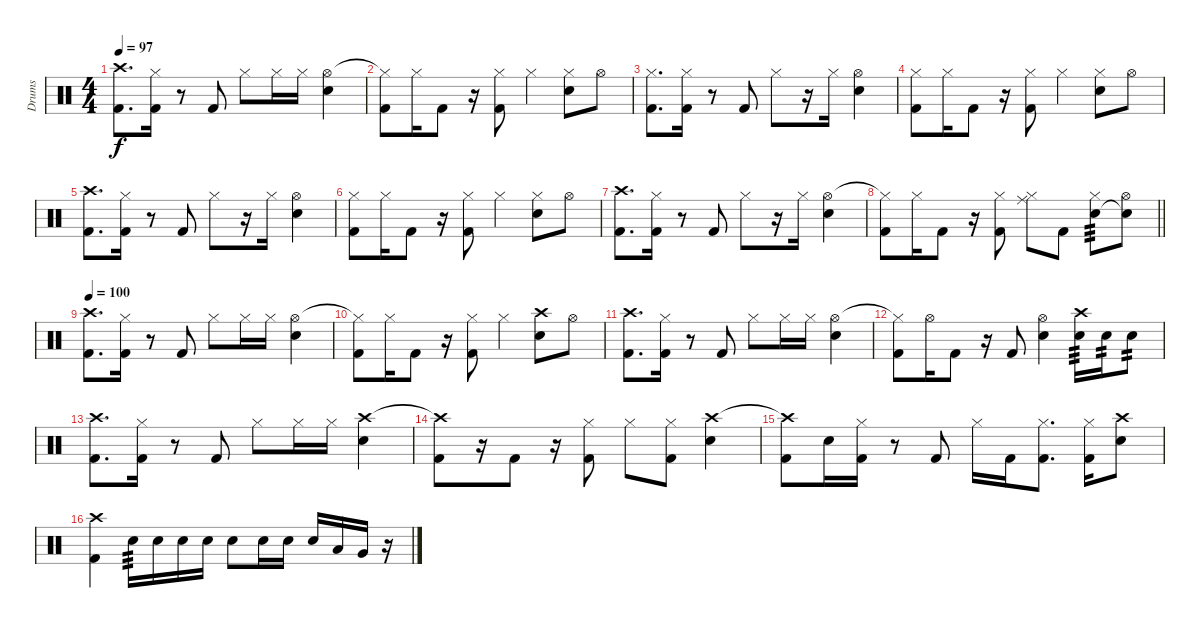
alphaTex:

\track ("Drums" "Drums") {instrument percussion}
\staff {score}
\articulation defaults
\ts (4 4)
\tempo 97
\clef neutral
\ks c
("Crash high (hit)" "Kick (hit) 2").8{d dy f} ("Hi-Hat (closed)" "Kick (hit) 2").16 r.8 "Kick (hit) 2".8 "Hi-Hat (closed)".8 "Hi-Hat (closed)".16 "Hi-Hat (closed)".16 ("Hi-Hat (open)" "Electric Snare (hit)").4 |
("Hi-Hat (closed)"{t} "Kick (hit) 2").8 "Hi-Hat (closed)".16 "Kick (hit) 2".8 r.16 ("Hi-Hat (closed)" "Kick (hit) 2").8 "Hi-Hat (closed)".4 ("Hi-Hat (closed)" "Electric Snare (hit)").8 "Hi-Hat (open)".8 |
("Hi-Hat (closed)" "Kick (hit) 2").8{d} ("Hi-Hat (closed)" "Kick (hit) 2").16 r.8 "Kick (hit) 2".8 "Hi-Hat (closed)".8 r.16 "Hi-Hat (closed)".16 ("Hi-Hat (open)" "Electric Snare (hit)").4 |
("Hi-Hat (closed)" "Kick (hit) 2").8 "Hi-Hat (closed)".16 "Kick (hit) 2".8 r.16 ("Hi-Hat (closed)" "Kick (hit) 2").8 "Hi-Hat (closed)".4 ("Hi-Hat (closed)" "Electric Snare (hit)").8 "Hi-Hat (open)".8 |
("Crash high (hit)" "Kick (hit) 2").8{d} ("Hi-Hat (closed)" "Kick (hit) 2").16 r.8 "Kick (hit) 2".8 "Hi-Hat (closed)".8 r.16 "Hi-Hat (closed)".16 ("Hi-Hat (open)" "Electric Snare (hit)").4 |
("Hi-Hat (closed)" "Kick (hit) 2").8 "Hi-Hat (closed)".16 "Kick (hit) 2".8 r.16 ("Hi-Hat (closed)" "Kick (hit) 2").8 "Hi-Hat (closed)".4 ("Hi-Hat (closed)" "Electric Snare (hit)").8 "Hi-Hat (open)".8 |
("Crash high (hit)" "Kick (hit) 2").8{d} ("Hi-Hat (closed)" "Kick (hit) 2").16 r.8 "Kick (hit) 2".8 "Hi-Hat (closed)".8 r.16 "Hi-Hat (closed)".16 ("Hi-Hat (open)" "Electric Snare (hit)").4 |
\barLineRight lightlight
("Hi-Hat (closed)"{t} "Kick (hit) 2").8 "Hi-Hat (closed)".16 "Kick (hit) 2".8 r.16 ("Hi-Hat (closed)" "Kick (hit) 2").8 ("Ride (middle)" "Hi-Hat (closed)").8 "Kick (hit) 2".8 ("Hi-Hat (closed)" "Electric Snare (hit)").8{tp 3} ("Hi-Hat (open)" "Snare (hit)"{t}).8 |
\tempo 100
("Crash high (hit)" "Kick (hit) 2").8{d} ("Hi-Hat (closed)" "Kick (hit) 2").16 r.8 "Kick (hit) 2".8 "Hi-Hat (closed)".8 "Hi-Hat (closed)".16 "Hi-Hat (closed)".16 ("Hi-Hat (open)" "Electric Snare (hit)").4 |
("Hi-Hat (closed)"{t} "Kick (hit) 2").8 "Hi-Hat (closed)".16 "Kick (hit) 2".8 r.16 ("Hi-Hat (closed)" "Kick (hit) 2").8 "Hi-Hat (closed)".4 ("Crash high (hit)" "Electric Snare (hit)").8 "Hi-Hat (open)".8 |
("Crash high (hit)" "Kick (hit) 2").8{d} ("Hi-Hat (closed)" "Kick (hit) 2").16 r.8 "Kick (hit) 2".8 "Hi-Hat (closed)".8 "Hi-Hat (closed)".16 "Hi-Hat (closed)".16 ("Hi-Hat (open)" "Electric Snare (hit)").4 |
("Hi-Hat (closed)"{t} "Kick (hit) 2").8 "Hi-Hat (open)".16 "Kick (hit) 2".8 r.16 "Kick (hit) 2".8 ("Hi-Hat (open)" "Electric Snare (hit)").4 ("Crash high (hit)" "Electric Snare (hit)").16{tp 3} "Electric Snare (hit)".16{tp 2} "Electric Snare (hit)".8{tp 2} |
("Crash high (hit)" "Kick (hit) 2").8{d} ("Hi-Hat (closed)" "Kick (hit) 2").16 r.8 "Kick (hit) 2".8 "Hi-Hat (closed)".8 "Hi-Hat (closed)".16 "Hi-Hat (closed)".16 ("Crash high (hit)" "Electric Snare (hit)").4 |
("Crash high (hit)"{t} "Kick (hit) 2").8 r.16 "Kick (hit) 2".8 r.16 ("Hi-Hat (closed)" "Kick (hit) 2").8 "Hi-Hat (closed)".8 ("Hi-Hat (closed)" "Kick (hit) 2").8 ("Crash high (hit)" "Electric Snare (hit)").4 |
("Crash high (hit)"{t} "Kick (hit) 2").8 "Electric Snare (hit)".16 ("Hi-Hat (closed)" "Kick (hit) 2").16 r.8 "Kick (hit) 2".8 "Hi-Hat (closed)".16 "Kick (hit) 2".16 ("Hi-Hat (closed)" "Kick (hit) 2").8{d} ("Hi-Hat (closed)" "Kick (hit) 2").16 ("Crash high (hit)" "Electric Snare (hit)").8 |
("Crash high (hit)" "Kick (hit) 2").4 "Electric Snare (hit)".16{tp 3} "Electric Snare (hit)".16 "Electric Snare (hit)".16 "Electric Snare (hit)".16 "Electric Snare (hit)".8 "Electric Snare (hit)".16 "Electric Snare (hit)".16 "Electric Snare (hit)".16 "Low Tom (hit)".16 "Very Low Tom (hit)".16 r.16
